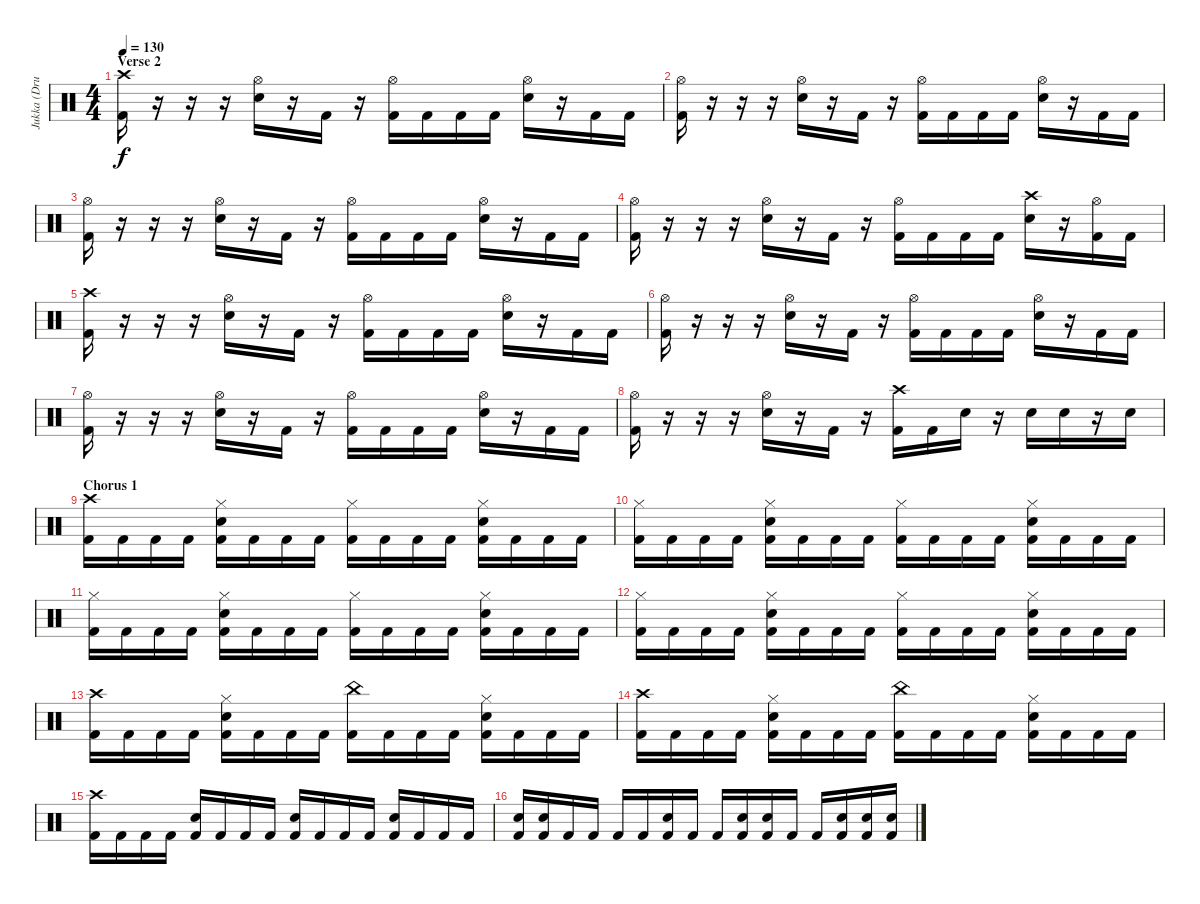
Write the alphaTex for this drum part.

\track ("Jukka (Drums)" "Jukka (Dru") {instrument percussion}
\staff {score}
\articulation defaults
\ts (4 4)
\section ("" "Verse 2")
\tempo 130
\clef neutral
\ks c
("Crash high (hit)" "Kick (hit) 2").16{dy f} r.16 r.16 r.16 ("Hi-Hat (open)" "Electric Snare (hit)").16 r.16 "Kick (hit) 2".16 r.16 ("Hi-Hat (open)" "Kick (hit) 2").16 "Kick (hit) 2".16 "Kick (hit) 2".16 "Kick (hit) 2".16 ("Hi-Hat (open)" "Electric Snare (hit)").16 r.16 "Kick (hit) 2".16 "Kick (hit) 2".16 |
("Hi-Hat (open)" "Kick (hit) 2").16 r.16 r.16 r.16 ("Hi-Hat (open)" "Electric Snare (hit)").16 r.16 "Kick (hit) 2".16 r.16 ("Hi-Hat (open)" "Kick (hit) 2").16 "Kick (hit) 2".16 "Kick (hit) 2".16 "Kick (hit) 2".16 ("Hi-Hat (open)" "Electric Snare (hit)").16 r.16 "Kick (hit) 2".16 "Kick (hit) 2".16 |
("Hi-Hat (open)" "Kick (hit) 2").16 r.16 r.16 r.16 ("Hi-Hat (open)" "Electric Snare (hit)").16 r.16 "Kick (hit) 2".16 r.16 ("Hi-Hat (open)" "Kick (hit) 2").16 "Kick (hit) 2".16 "Kick (hit) 2".16 "Kick (hit) 2".16 ("Hi-Hat (open)" "Electric Snare (hit)").16 r.16 "Kick (hit) 2".16 "Kick (hit) 2".16 |
("Hi-Hat (open)" "Kick (hit) 2").16 r.16 r.16 r.16 ("Hi-Hat (open)" "Electric Snare (hit)").16 r.16 "Kick (hit) 2".16 r.16 ("Hi-Hat (open)" "Kick (hit) 2").16 "Kick (hit) 2".16 "Kick (hit) 2".16 "Kick (hit) 2".16 ("Crash high (hit)" "Electric Snare (hit)").16 r.16 ("Hi-Hat (open)" "Kick (hit) 2").16 "Kick (hit) 2".16 |
("Crash high (hit)" "Kick (hit) 2").16 r.16 r.16 r.16 ("Hi-Hat (open)" "Electric Snare (hit)").16 r.16 "Kick (hit) 2".16 r.16 ("Hi-Hat (open)" "Kick (hit) 2").16 "Kick (hit) 2".16 "Kick (hit) 2".16 "Kick (hit) 2".16 ("Hi-Hat (open)" "Electric Snare (hit)").16 r.16 "Kick (hit) 2".16 "Kick (hit) 2".16 |
("Hi-Hat (open)" "Kick (hit) 2").16 r.16 r.16 r.16 ("Hi-Hat (open)" "Electric Snare (hit)").16 r.16 "Kick (hit) 2".16 r.16 ("Hi-Hat (open)" "Kick (hit) 2").16 "Kick (hit) 2".16 "Kick (hit) 2".16 "Kick (hit) 2".16 ("Hi-Hat (open)" "Electric Snare (hit)").16 r.16 "Kick (hit) 2".16 "Kick (hit) 2".16 |
("Hi-Hat (open)" "Kick (hit) 2").16 r.16 r.16 r.16 ("Hi-Hat (open)" "Electric Snare (hit)").16 r.16 "Kick (hit) 2".16 r.16 ("Hi-Hat (open)" "Kick (hit) 2").16 "Kick (hit) 2".16 "Kick (hit) 2".16 "Kick (hit) 2".16 ("Hi-Hat (open)" "Electric Snare (hit)").16 r.16 "Kick (hit) 2".16 "Kick (hit) 2".16 |
("Hi-Hat (open)" "Kick (hit) 2").16 r.16 r.16 r.16 ("Hi-Hat (open)" "Electric Snare (hit)").16 r.16 "Kick (hit) 2".16 r.16 ("Crash high (hit)" "Kick (hit) 2").16 "Kick (hit) 2".16 "Electric Snare (hit)".16 r.16 "Electric Snare (hit)".16 "Electric Snare (hit)".16 r.16 "Electric Snare (hit)".16 |
\section ("" "Chorus 1")
("Crash high (hit)" "Kick (hit) 2").16 "Kick (hit) 2".16 "Kick (hit) 2".16 "Kick (hit) 2".16 ("Hi-Hat (closed)" "Electric Snare (hit)" "Kick (hit) 2").16 "Kick (hit) 2".16 "Kick (hit) 2".16 "Kick (hit) 2".16 ("Hi-Hat (closed)" "Kick (hit) 2").16 "Kick (hit) 2".16 "Kick (hit) 2".16 "Kick (hit) 2".16 ("Hi-Hat (closed)" "Electric Snare (hit)" "Kick (hit) 2").16 "Kick (hit) 2".16 "Kick (hit) 2".16 "Kick (hit) 2".16 |
("Hi-Hat (closed)" "Kick (hit) 2").16 "Kick (hit) 2".16 "Kick (hit) 2".16 "Kick (hit) 2".16 ("Hi-Hat (closed)" "Electric Snare (hit)" "Kick (hit) 2").16 "Kick (hit) 2".16 "Kick (hit) 2".16 "Kick (hit) 2".16 ("Hi-Hat (closed)" "Kick (hit) 2").16 "Kick (hit) 2".16 "Kick (hit) 2".16 "Kick (hit) 2".16 ("Hi-Hat (closed)" "Electric Snare (hit)" "Kick (hit) 2").16 "Kick (hit) 2".16 "Kick (hit) 2".16 "Kick (hit) 2".16 |
("Hi-Hat (closed)" "Kick (hit) 2").16 "Kick (hit) 2".16 "Kick (hit) 2".16 "Kick (hit) 2".16 ("Hi-Hat (closed)" "Electric Snare (hit)" "Kick (hit) 2").16 "Kick (hit) 2".16 "Kick (hit) 2".16 "Kick (hit) 2".16 ("Hi-Hat (closed)" "Kick (hit) 2").16 "Kick (hit) 2".16 "Kick (hit) 2".16 "Kick (hit) 2".16 ("Hi-Hat (closed)" "Electric Snare (hit)" "Kick (hit) 2").16 "Kick (hit) 2".16 "Kick (hit) 2".16 "Kick (hit) 2".16 |
("Hi-Hat (closed)" "Kick (hit) 2").16 "Kick (hit) 2".16 "Kick (hit) 2".16 "Kick (hit) 2".16 ("Hi-Hat (closed)" "Electric Snare (hit)" "Kick (hit) 2").16 "Kick (hit) 2".16 "Kick (hit) 2".16 "Kick (hit) 2".16 ("Hi-Hat (closed)" "Kick (hit) 2").16 "Kick (hit) 2".16 "Kick (hit) 2".16 "Kick (hit) 2".16 ("Hi-Hat (closed)" "Electric Snare (hit)" "Kick (hit) 2").16 "Kick (hit) 2".16 "Kick (hit) 2".16 "Kick (hit) 2".16 |
("Crash high (hit)" "Kick (hit) 2").16 "Kick (hit) 2".16 "Kick (hit) 2".16 "Kick (hit) 2".16 ("Hi-Hat (closed)" "Electric Snare (hit)" "Kick (hit) 2").16 "Kick (hit) 2".16 "Kick (hit) 2".16 "Kick (hit) 2".16 ("China (hit)" "Kick (hit) 2").16 "Kick (hit) 2".16 "Kick (hit) 2".16 "Kick (hit) 2".16 ("Hi-Hat (closed)" "Electric Snare (hit)" "Kick (hit) 2").16 "Kick (hit) 2".16 "Kick (hit) 2".16 "Kick (hit) 2".16 |
("Crash high (hit)" "Kick (hit) 2").16 "Kick (hit) 2".16 "Kick (hit) 2".16 "Kick (hit) 2".16 ("Hi-Hat (closed)" "Electric Snare (hit)" "Kick (hit) 2").16 "Kick (hit) 2".16 "Kick (hit) 2".16 "Kick (hit) 2".16 ("China (hit)" "Kick (hit) 2").16 "Kick (hit) 2".16 "Kick (hit) 2".16 "Kick (hit) 2".16 ("Hi-Hat (closed)" "Electric Snare (hit)" "Kick (hit) 2").16 "Kick (hit) 2".16 "Kick (hit) 2".16 "Kick (hit) 2".16 |
("Crash high (hit)" "Kick (hit) 2").16 "Kick (hit) 2".16 "Kick (hit) 2".16 "Kick (hit) 2".16 ("Electric Snare (hit)" "Kick (hit) 2").16 "Kick (hit) 2".16 "Kick (hit) 2".16 "Kick (hit) 2".16 ("Electric Snare (hit)" "Kick (hit) 2").16 "Kick (hit) 2".16 "Kick (hit) 2".16 "Kick (hit) 2".16 ("Electric Snare (hit)" "Kick (hit) 2").16 "Kick (hit) 2".16 "Kick (hit) 2".16 "Kick (hit) 2".16 |
("Electric Snare (hit)" "Kick (hit) 2").16 ("Electric Snare (hit)" "Kick (hit) 2").16 "Kick (hit) 2".16 "Kick (hit) 2".16 "Kick (hit) 2".16 "Kick (hit) 2".16 ("Electric Snare (hit)" "Kick (hit) 2").16 "Kick (hit) 2".16 "Kick (hit) 2".16 ("Electric Snare (hit)" "Kick (hit) 2").16 ("Electric Snare (hit)" "Kick (hit) 2").16 "Kick (hit) 2".16 "Kick (hit) 2".16 ("Electric Snare (hit)" "Kick (hit) 2").16 ("Electric Snare (hit)" "Kick (hit) 2").16 ("Electric Snare (hit)" "Kick (hit) 2").16
